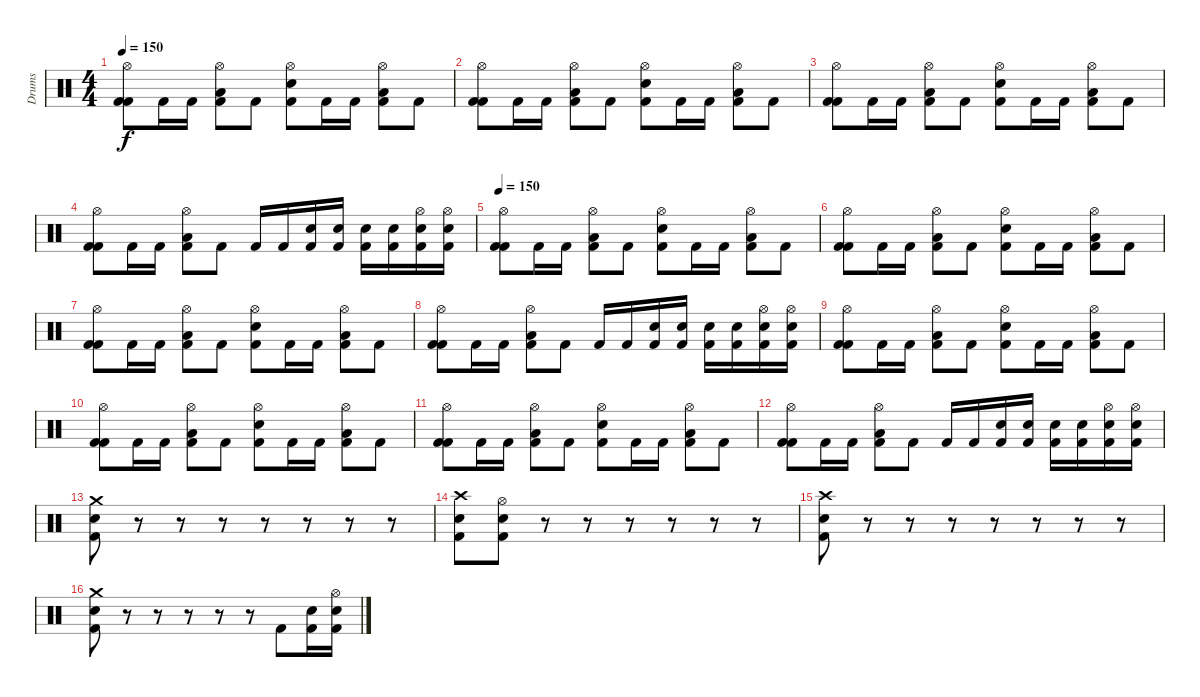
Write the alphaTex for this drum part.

\track ("Drums" "Drums") {instrument percussion}
\staff {score}
\articulation defaults
\ts (4 4)
\tempo 150
\clef neutral
\ks c
("Hi-Hat (open)" "Kick (hit) 2" "Kick (hit) 2").8{dy f volume 12} "Kick (hit) 2".16 "Kick (hit) 2".16 ("Hi-Hat (open)" "Low Floor Tom (hit)" "Kick (hit) 2").8 "Kick (hit) 2".8 ("Hi-Hat (open)" "Snare (hit) 2" "Kick (hit) 2").8 "Kick (hit) 2".16 "Kick (hit) 2".16 ("Hi-Hat (open)" "Low Floor Tom (hit)" "Kick (hit) 2").8 "Kick (hit) 2".8 |
("Hi-Hat (open)" "Kick (hit) 2" "Kick (hit) 2").8{volume 12} "Kick (hit) 2".16 "Kick (hit) 2".16 ("Hi-Hat (open)" "Low Floor Tom (hit)" "Kick (hit) 2").8 "Kick (hit) 2".8 ("Hi-Hat (open)" "Snare (hit) 2" "Kick (hit) 2").8 "Kick (hit) 2".16 "Kick (hit) 2".16 ("Hi-Hat (open)" "Low Floor Tom (hit)" "Kick (hit) 2").8 "Kick (hit) 2".8 |
("Hi-Hat (open)" "Kick (hit) 2" "Kick (hit) 2").8 "Kick (hit) 2".16 "Kick (hit) 2".16 ("Hi-Hat (open)" "Low Floor Tom (hit)" "Kick (hit) 2").8 "Kick (hit) 2".8 ("Hi-Hat (open)" "Snare (hit) 2" "Kick (hit) 2").8 "Kick (hit) 2".16 "Kick (hit) 2".16 ("Hi-Hat (open)" "Low Floor Tom (hit)" "Kick (hit) 2").8 "Kick (hit) 2".8 |
("Hi-Hat (open)" "Kick (hit) 2" "Kick (hit) 2").8{volume 12} "Kick (hit) 2".16 "Kick (hit) 2".16 ("Hi-Hat (open)" "Low Floor Tom (hit)" "Kick (hit) 2").8 "Kick (hit) 2".8 "Kick (hit) 2".16 "Kick (hit) 2".16 ("Snare (hit) 2" "Kick (hit) 2").16 ("Snare (hit) 2" "Kick (hit) 2").16 ("Snare (hit) 2" "Kick (hit) 2").16 ("Snare (hit) 2" "Kick (hit) 2").16 ("Hi-Hat (open)" "Snare (hit) 2" "Kick (hit) 2").16 ("Hi-Hat (open)" "Snare (hit) 2" "Kick (hit) 2").16 |
\tempo 150
("Hi-Hat (open)" "Kick (hit) 2" "Kick (hit) 2").8{volume 12} "Kick (hit) 2".16 "Kick (hit) 2".16 ("Hi-Hat (open)" "Low Floor Tom (hit)" "Kick (hit) 2").8 "Kick (hit) 2".8 ("Hi-Hat (open)" "Snare (hit) 2" "Kick (hit) 2").8 "Kick (hit) 2".16 "Kick (hit) 2".16 ("Hi-Hat (open)" "Low Floor Tom (hit)" "Kick (hit) 2").8 "Kick (hit) 2".8 |
("Hi-Hat (open)" "Kick (hit) 2" "Kick (hit) 2").8{volume 12} "Kick (hit) 2".16 "Kick (hit) 2".16 ("Hi-Hat (open)" "Low Floor Tom (hit)" "Kick (hit) 2").8 "Kick (hit) 2".8 ("Hi-Hat (open)" "Snare (hit) 2" "Kick (hit) 2").8 "Kick (hit) 2".16 "Kick (hit) 2".16 ("Hi-Hat (open)" "Low Floor Tom (hit)" "Kick (hit) 2").8 "Kick (hit) 2".8 |
("Hi-Hat (open)" "Kick (hit) 2" "Kick (hit) 2").8 "Kick (hit) 2".16 "Kick (hit) 2".16 ("Hi-Hat (open)" "Low Floor Tom (hit)" "Kick (hit) 2").8 "Kick (hit) 2".8 ("Hi-Hat (open)" "Snare (hit) 2" "Kick (hit) 2").8 "Kick (hit) 2".16 "Kick (hit) 2".16 ("Hi-Hat (open)" "Low Floor Tom (hit)" "Kick (hit) 2").8 "Kick (hit) 2".8 |
("Hi-Hat (open)" "Kick (hit) 2" "Kick (hit) 2").8{volume 12} "Kick (hit) 2".16 "Kick (hit) 2".16 ("Hi-Hat (open)" "Low Floor Tom (hit)" "Kick (hit) 2").8 "Kick (hit) 2".8 "Kick (hit) 2".16 "Kick (hit) 2".16 ("Snare (hit) 2" "Kick (hit) 2").16 ("Snare (hit) 2" "Kick (hit) 2").16 ("Snare (hit) 2" "Kick (hit) 2").16 ("Snare (hit) 2" "Kick (hit) 2").16 ("Hi-Hat (open)" "Snare (hit) 2" "Kick (hit) 2").16 ("Hi-Hat (open)" "Snare (hit) 2" "Kick (hit) 2").16 |
("Hi-Hat (open)" "Kick (hit) 2" "Kick (hit) 2").8{volume 12} "Kick (hit) 2".16 "Kick (hit) 2".16 ("Hi-Hat (open)" "Low Floor Tom (hit)" "Kick (hit) 2").8 "Kick (hit) 2".8 ("Hi-Hat (open)" "Snare (hit) 2" "Kick (hit) 2").8 "Kick (hit) 2".16 "Kick (hit) 2".16 ("Hi-Hat (open)" "Low Floor Tom (hit)" "Kick (hit) 2").8 "Kick (hit) 2".8 |
("Hi-Hat (open)" "Kick (hit) 2" "Kick (hit) 2").8{volume 12} "Kick (hit) 2".16 "Kick (hit) 2".16 ("Hi-Hat (open)" "Low Floor Tom (hit)" "Kick (hit) 2").8 "Kick (hit) 2".8 ("Hi-Hat (open)" "Snare (hit) 2" "Kick (hit) 2").8 "Kick (hit) 2".16 "Kick (hit) 2".16 ("Hi-Hat (open)" "Low Floor Tom (hit)" "Kick (hit) 2").8 "Kick (hit) 2".8 |
("Hi-Hat (open)" "Kick (hit) 2" "Kick (hit) 2").8 "Kick (hit) 2".16 "Kick (hit) 2".16 ("Hi-Hat (open)" "Low Floor Tom (hit)" "Kick (hit) 2").8 "Kick (hit) 2".8 ("Hi-Hat (open)" "Snare (hit) 2" "Kick (hit) 2").8 "Kick (hit) 2".16 "Kick (hit) 2".16 ("Hi-Hat (open)" "Low Floor Tom (hit)" "Kick (hit) 2").8 "Kick (hit) 2".8 |
("Hi-Hat (open)" "Kick (hit) 2" "Kick (hit) 2").8{volume 12} "Kick (hit) 2".16 "Kick (hit) 2".16 ("Hi-Hat (open)" "Low Floor Tom (hit)" "Kick (hit) 2").8 "Kick (hit) 2".8 "Kick (hit) 2".16 "Kick (hit) 2".16 ("Snare (hit) 2" "Kick (hit) 2").16 ("Snare (hit) 2" "Kick (hit) 2").16 ("Snare (hit) 2" "Kick (hit) 2").16 ("Snare (hit) 2" "Kick (hit) 2").16 ("Hi-Hat (open)" "Snare (hit) 2" "Kick (hit) 2").16 ("Hi-Hat (open)" "Snare (hit) 2" "Kick (hit) 2").16 |
("Crash medium (hit)" "Snare (hit) 2" "Kick (hit) 2").8 r.8 r.8 r.8 r.8 r.8 r.8 r.8 |
("Crash high (hit)" "Snare (hit) 2" "Kick (hit) 2").8 ("Hi-Hat (open)" "Snare (hit) 2" "Kick (hit) 2").8 r.8 r.8 r.8 r.8 r.8 r.8 |
("Crash high (hit)" "Snare (hit) 2" "Kick (hit) 2").8 r.8 r.8 r.8 r.8 r.8 r.8 r.8 |
("Crash medium (hit)" "Snare (hit) 2" "Kick (hit) 2").8 r.8 r.8 r.8 r.8 r.8 "Kick (hit) 2".8 ("Snare (hit) 2" "Kick (hit) 2").16 ("Hi-Hat (open)" "Snare (hit) 2" "Kick (hit) 2").16
